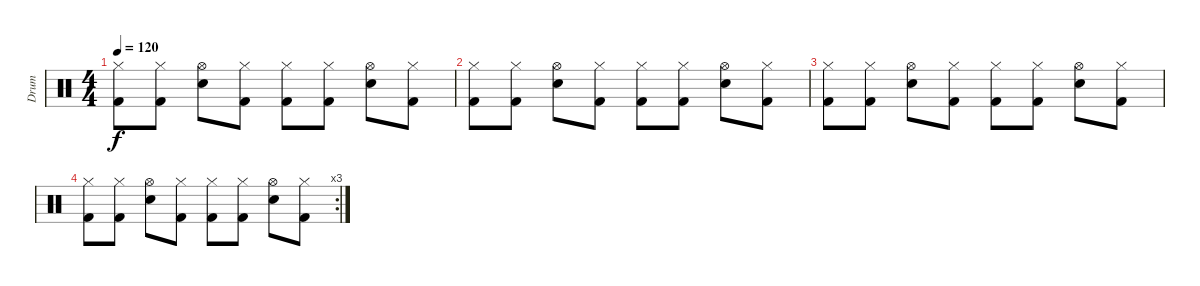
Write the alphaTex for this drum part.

\track ("Drum" "Drum") {instrument percussion}
\staff {score}
\articulation defaults
\ts (4 4)
\tempo 120
\clef neutral
\ks c
("Hi-Hat (closed)" "Kick (hit) 2").8{dy f} ("Hi-Hat (closed)" "Kick (hit) 2").8 ("Hi-Hat (open)" "Snare (hit) 2").8 ("Hi-Hat (closed)" "Kick (hit) 2").8 ("Hi-Hat (closed)" "Kick (hit) 2").8 ("Hi-Hat (closed)" "Kick (hit) 2").8 ("Hi-Hat (open)" "Snare (hit) 2").8 ("Hi-Hat (closed)" "Kick (hit) 2").8 |
("Hi-Hat (closed)" "Kick (hit) 2").8 ("Hi-Hat (closed)" "Kick (hit) 2").8 ("Hi-Hat (open)" "Snare (hit) 2").8 ("Hi-Hat (closed)" "Kick (hit) 2").8 ("Hi-Hat (closed)" "Kick (hit) 2").8 ("Hi-Hat (closed)" "Kick (hit) 2").8 ("Hi-Hat (open)" "Snare (hit) 2").8 ("Hi-Hat (closed)" "Kick (hit) 2").8 |
("Hi-Hat (closed)" "Kick (hit) 2").8 ("Hi-Hat (closed)" "Kick (hit) 2").8 ("Hi-Hat (open)" "Snare (hit) 2").8 ("Hi-Hat (closed)" "Kick (hit) 2").8 ("Hi-Hat (closed)" "Kick (hit) 2").8 ("Hi-Hat (closed)" "Kick (hit) 2").8 ("Hi-Hat (open)" "Snare (hit) 2").8 ("Hi-Hat (closed)" "Kick (hit) 2").8 |
\rc 3
("Hi-Hat (closed)" "Kick (hit) 2").8 ("Hi-Hat (closed)" "Kick (hit) 2").8 ("Hi-Hat (open)" "Snare (hit) 2").8 ("Hi-Hat (closed)" "Kick (hit) 2").8 ("Hi-Hat (closed)" "Kick (hit) 2").8 ("Hi-Hat (closed)" "Kick (hit) 2").8 ("Hi-Hat (open)" "Snare (hit) 2").8 ("Hi-Hat (closed)" "Kick (hit) 2").8
